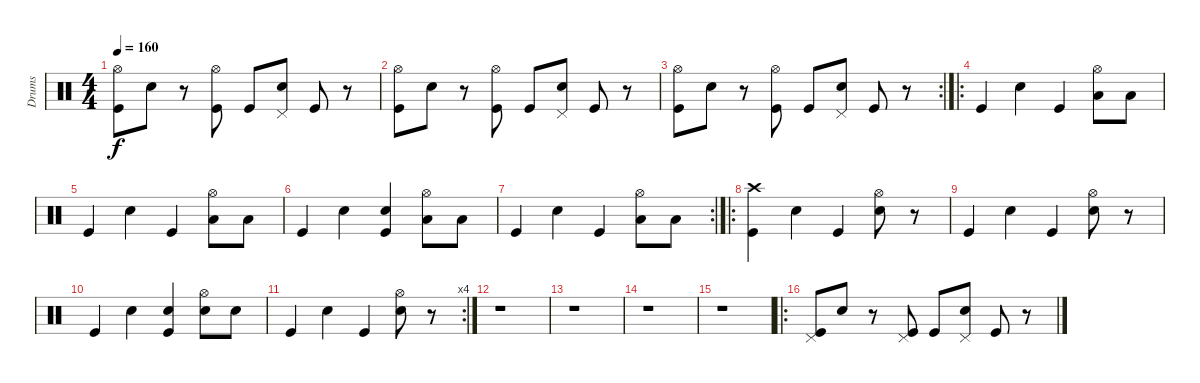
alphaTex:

\track ("Drums" "Drums") {instrument percussion}
\staff {score}
\articulation defaults
\ts (4 4)
\tempo 160
\clef neutral
\ks c
("Hi-Hat (open)" "Kick (hit)").8{dy f} "Snare (hit) 2".8 r.8 ("Hi-Hat (open)" "Kick (hit)").8 "Kick (hit)".8 ("Pedal Hi-Hat (hit)" "Snare (hit) 2").8 "Kick (hit)".8 r.8 |
("Hi-Hat (open)" "Kick (hit)").8 "Snare (hit) 2".8 r.8 ("Hi-Hat (open)" "Kick (hit)").8 "Kick (hit)".8 ("Pedal Hi-Hat (hit)" "Snare (hit) 2").8 "Kick (hit)".8 r.8 |
\rc 2
("Hi-Hat (open)" "Kick (hit)").8 "Snare (hit) 2".8 r.8 ("Hi-Hat (open)" "Kick (hit)").8 "Kick (hit)".8 ("Pedal Hi-Hat (hit)" "Snare (hit) 2").8 "Kick (hit)".8 r.8 |
\ro "Kick (hit)".4 "Snare (hit) 2".4 "Kick (hit)".4
("Hi-Hat (open)" "Low Floor Tom (hit)").8 "Low Floor Tom (hit)".8 |
"Kick (hit)".4 "Snare (hit) 2".4 "Kick (hit)".4 ("Hi-Hat (open)" "Low Floor Tom (hit)").8 "Low Floor Tom (hit)".8 |
"Kick (hit)".4 "Snare (hit) 2".4 ("Snare (hit) 2" "Kick (hit)").4 ("Hi-Hat (open)" "Low Floor Tom (hit)").8 "Low Floor Tom (hit)".8 |
\rc 2 "Kick (hit)".4 "Snare (hit) 2".4 "Kick (hit)".4
("Hi-Hat (open)" "Low Floor Tom (hit)").8 "Low Floor Tom (hit)".8 |
\ro
("Crash high (hit)" "Kick (hit)").4 "Snare (hit) 2".4 "Kick (hit)".4 ("Hi-Hat (open)" "Snare (hit) 2").8 r.8 |
"Kick (hit)".4 "Snare (hit) 2".4 "Kick (hit)".4 ("Hi-Hat (open)" "Snare (hit) 2").8 r.8 |
"Kick (hit)".4 "Snare (hit) 2".4 ("Snare (hit) 2" "Kick (hit)").4 ("Hi-Hat (open)" "Snare (hit) 2").8 "Snare (hit) 2".8 |
\rc 4 "Kick (hit)".4 "Snare (hit) 2".4 "Kick (hit)".4
("Hi-Hat (open)" "Snare (hit) 2").8 r.8 |
r.1 |
r.1 |
r.1 |
r.1 |
\ro
("Pedal Hi-Hat (hit)" "Kick (hit)").8 "Snare (hit) 2".8 r.8 ("Pedal Hi-Hat (hit)" "Kick (hit)").8 "Kick (hit)".8 ("Pedal Hi-Hat (hit)" "Snare (hit) 2").8 "Kick (hit)".8 r.8
